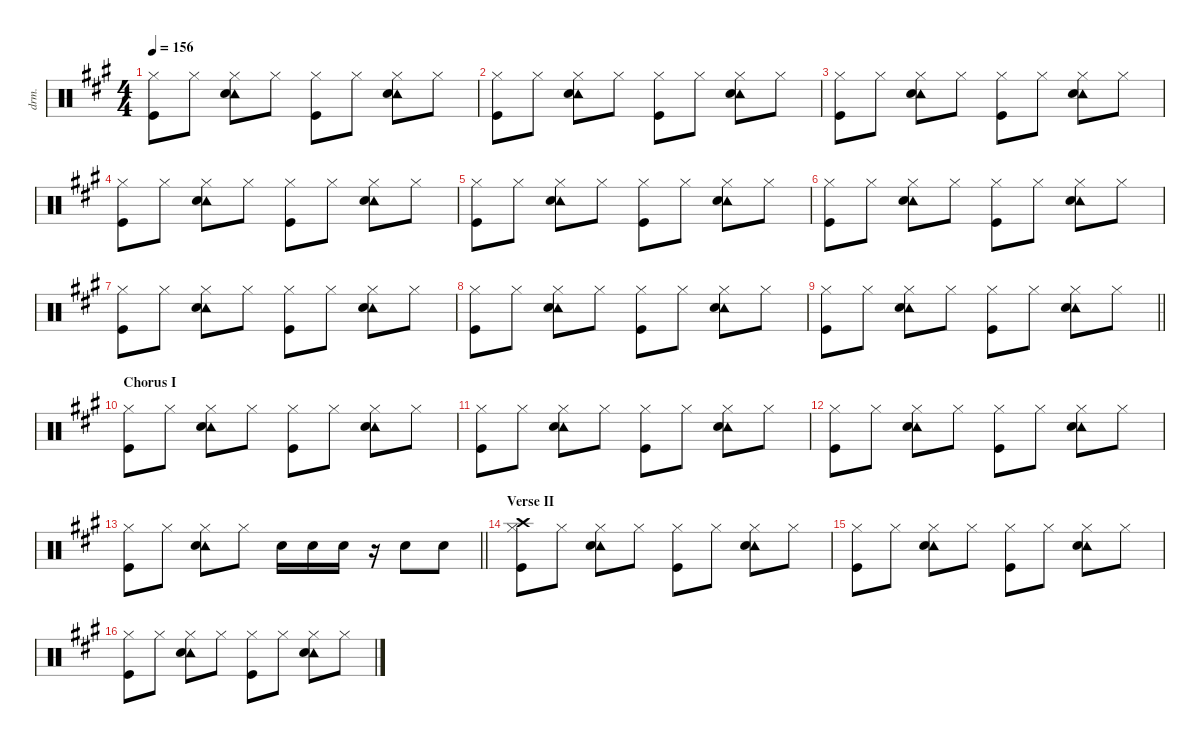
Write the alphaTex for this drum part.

\defaultSystemsLayout 4
\hideDynamics
\bracketExtendMode nobrackets
\otherSystemsTrackNameOrientation horizontal
\track ("Drums" "drm.") {instrument percussion}
\staff {score}
\articulation defaults
\ts (4 4)
\tempo 156
\clef neutral
\ks a
("Hi-Hat (closed)"{acc forcenatural} "Kick (hit)"{acc forcenatural}).8{dy f beam Down} "Hi-Hat (closed)"{acc forcenatural}.8{beam Down} ("Hi-Hat (closed)"{acc forcenatural} "Tambourine (hit)"{acc forcenatural} "Snare (hit) 2"{acc forcenatural}).8{beam Down} "Hi-Hat (closed)"{acc forcenatural}.8{beam Down} ("Hi-Hat (closed)"{acc forcenatural} "Kick (hit)"{acc forcenatural}).8{beam Down} "Hi-Hat (closed)"{acc forcenatural}.8{beam Down} ("Hi-Hat (closed)"{acc forcenatural} "Tambourine (hit)"{acc forcenatural} "Snare (hit) 2"{acc forcenatural}).8{beam Down} "Hi-Hat (closed)"{acc forcenatural}.8{beam Down} |
("Hi-Hat (closed)"{acc forcenatural} "Kick (hit)"{acc forcenatural}).8{beam Down} "Hi-Hat (closed)"{acc forcenatural}.8{beam Down} ("Hi-Hat (closed)"{acc forcenatural} "Tambourine (hit)"{acc forcenatural} "Snare (hit) 2"{acc forcenatural}).8{beam Down} "Hi-Hat (closed)"{acc forcenatural}.8{beam Down} ("Hi-Hat (closed)"{acc forcenatural} "Kick (hit)"{acc forcenatural}).8{beam Down} "Hi-Hat (closed)"{acc forcenatural}.8{beam Down} ("Hi-Hat (closed)"{acc forcenatural} "Tambourine (hit)"{acc forcenatural} "Snare (hit) 2"{acc forcenatural}).8{beam Down} "Hi-Hat (closed)"{acc forcenatural}.8{beam Down} |
("Hi-Hat (closed)"{acc forcenatural} "Kick (hit)"{acc forcenatural}).8{beam Down} "Hi-Hat (closed)"{acc forcenatural}.8{beam Down} ("Hi-Hat (closed)"{acc forcenatural} "Tambourine (hit)"{acc forcenatural} "Snare (hit) 2"{acc forcenatural}).8{beam Down} "Hi-Hat (closed)"{acc forcenatural}.8{beam Down} ("Hi-Hat (closed)"{acc forcenatural} "Kick (hit)"{acc forcenatural}).8{beam Down} "Hi-Hat (closed)"{acc forcenatural}.8{beam Down} ("Hi-Hat (closed)"{acc forcenatural} "Tambourine (hit)"{acc forcenatural} "Snare (hit) 2"{acc forcenatural}).8{beam Down} "Hi-Hat (closed)"{acc forcenatural}.8{beam Down} |
("Hi-Hat (closed)"{acc forcenatural} "Kick (hit)"{acc forcenatural}).8{beam Down} "Hi-Hat (closed)"{acc forcenatural}.8{beam Down} ("Hi-Hat (closed)"{acc forcenatural} "Tambourine (hit)"{acc forcenatural} "Snare (hit) 2"{acc forcenatural}).8{beam Down} "Hi-Hat (closed)"{acc forcenatural}.8{beam Down} ("Hi-Hat (closed)"{acc forcenatural} "Kick (hit)"{acc forcenatural}).8{beam Down} "Hi-Hat (closed)"{acc forcenatural}.8{beam Down} ("Hi-Hat (closed)"{acc forcenatural} "Tambourine (hit)"{acc forcenatural} "Snare (hit) 2"{acc forcenatural}).8{beam Down} "Hi-Hat (closed)"{acc forcenatural}.8{beam Down} |
("Hi-Hat (closed)"{acc forcenatural} "Kick (hit)"{acc forcenatural}).8{beam Down} "Hi-Hat (closed)"{acc forcenatural}.8{beam Down} ("Hi-Hat (closed)"{acc forcenatural} "Tambourine (hit)"{acc forcenatural} "Snare (hit) 2"{acc forcenatural}).8{beam Down} "Hi-Hat (closed)"{acc forcenatural}.8{beam Down} ("Hi-Hat (closed)"{acc forcenatural} "Kick (hit)"{acc forcenatural}).8{beam Down} "Hi-Hat (closed)"{acc forcenatural}.8{beam Down} ("Hi-Hat (closed)"{acc forcenatural} "Tambourine (hit)"{acc forcenatural} "Snare (hit) 2"{acc forcenatural}).8{beam Down} "Hi-Hat (closed)"{acc forcenatural}.8{beam Down} |
("Hi-Hat (closed)"{acc forcenatural} "Kick (hit)"{acc forcenatural}).8{beam Down} "Hi-Hat (closed)"{acc forcenatural}.8{beam Down} ("Hi-Hat (closed)"{acc forcenatural} "Tambourine (hit)"{acc forcenatural} "Snare (hit) 2"{acc forcenatural}).8{beam Down} "Hi-Hat (closed)"{acc forcenatural}.8{beam Down} ("Hi-Hat (closed)"{acc forcenatural} "Kick (hit)"{acc forcenatural}).8{beam Down} "Hi-Hat (closed)"{acc forcenatural}.8{beam Down} ("Hi-Hat (closed)"{acc forcenatural} "Tambourine (hit)"{acc forcenatural} "Snare (hit) 2"{acc forcenatural}).8{beam Down} "Hi-Hat (closed)"{acc forcenatural}.8{beam Down} |
("Hi-Hat (closed)"{acc forcenatural} "Kick (hit)"{acc forcenatural}).8{beam Down} "Hi-Hat (closed)"{acc forcenatural}.8{beam Down} ("Hi-Hat (closed)"{acc forcenatural} "Tambourine (hit)"{acc forcenatural} "Snare (hit) 2"{acc forcenatural}).8{beam Down} "Hi-Hat (closed)"{acc forcenatural}.8{beam Down} ("Hi-Hat (closed)"{acc forcenatural} "Kick (hit)"{acc forcenatural}).8{beam Down} "Hi-Hat (closed)"{acc forcenatural}.8{beam Down} ("Hi-Hat (closed)"{acc forcenatural} "Tambourine (hit)"{acc forcenatural} "Snare (hit) 2"{acc forcenatural}).8{beam Down} "Hi-Hat (closed)"{acc forcenatural}.8{beam Down} |
("Hi-Hat (closed)"{acc forcenatural} "Kick (hit)"{acc forcenatural}).8{beam Down} "Hi-Hat (closed)"{acc forcenatural}.8{beam Down} ("Hi-Hat (closed)"{acc forcenatural} "Tambourine (hit)"{acc forcenatural} "Snare (hit) 2"{acc forcenatural}).8{beam Down} "Hi-Hat (closed)"{acc forcenatural}.8{beam Down} ("Hi-Hat (closed)"{acc forcenatural} "Kick (hit)"{acc forcenatural}).8{beam Down} "Hi-Hat (closed)"{acc forcenatural}.8{beam Down} ("Hi-Hat (closed)"{acc forcenatural} "Tambourine (hit)"{acc forcenatural} "Snare (hit) 2"{acc forcenatural}).8{beam Down} "Hi-Hat (closed)"{acc forcenatural}.8{beam Down} |
\barLineRight lightlight
("Hi-Hat (closed)"{acc forcenatural} "Kick (hit)"{acc forcenatural}).8{beam Down} "Hi-Hat (closed)"{acc forcenatural}.8{beam Down} ("Hi-Hat (closed)"{acc forcenatural} "Tambourine (hit)"{acc forcenatural} "Snare (hit) 2"{acc forcenatural}).8{beam Down} "Hi-Hat (closed)"{acc forcenatural}.8{beam Down} ("Hi-Hat (closed)"{acc forcenatural} "Kick (hit)"{acc forcenatural}).8{beam Down} "Hi-Hat (closed)"{acc forcenatural}.8{beam Down} ("Hi-Hat (closed)"{acc forcenatural} "Tambourine (hit)"{acc forcenatural} "Snare (hit) 2"{acc forcenatural}).8{beam Down} "Hi-Hat (closed)"{acc forcenatural}.8{beam Down} |
\section ("" "Chorus I")
("Hi-Hat (closed)"{acc forcenatural} "Kick (hit)"{acc forcenatural}).8{beam Down} "Hi-Hat (closed)"{acc forcenatural}.8{beam Down} ("Hi-Hat (closed)"{acc forcenatural} "Tambourine (hit)"{acc forcenatural} "Snare (hit) 2"{acc forcenatural}).8{beam Down} "Hi-Hat (closed)"{acc forcenatural}.8{beam Down} ("Hi-Hat (closed)"{acc forcenatural} "Kick (hit)"{acc forcenatural}).8{beam Down} "Hi-Hat (closed)"{acc forcenatural}.8{beam Down} ("Hi-Hat (closed)"{acc forcenatural} "Tambourine (hit)"{acc forcenatural} "Snare (hit) 2"{acc forcenatural}).8{beam Down} "Hi-Hat (closed)"{acc forcenatural}.8{beam Down} |
("Hi-Hat (closed)"{acc forcenatural} "Kick (hit)"{acc forcenatural}).8{beam Down} "Hi-Hat (closed)"{acc forcenatural}.8{beam Down} ("Hi-Hat (closed)"{acc forcenatural} "Tambourine (hit)"{acc forcenatural} "Snare (hit) 2"{acc forcenatural}).8{beam Down} "Hi-Hat (closed)"{acc forcenatural}.8{beam Down} ("Hi-Hat (closed)"{acc forcenatural} "Kick (hit)"{acc forcenatural}).8{beam Down} "Hi-Hat (closed)"{acc forcenatural}.8{beam Down} ("Hi-Hat (closed)"{acc forcenatural} "Tambourine (hit)"{acc forcenatural} "Snare (hit) 2"{acc forcenatural}).8{beam Down} "Hi-Hat (closed)"{acc forcenatural}.8{beam Down} |
("Hi-Hat (closed)"{acc forcenatural} "Kick (hit)"{acc forcenatural}).8{beam Down} "Hi-Hat (closed)"{acc forcenatural}.8{beam Down} ("Hi-Hat (closed)"{acc forcenatural} "Tambourine (hit)"{acc forcenatural} "Snare (hit) 2"{acc forcenatural}).8{beam Down} "Hi-Hat (closed)"{acc forcenatural}.8{beam Down} ("Hi-Hat (closed)"{acc forcenatural} "Kick (hit)"{acc forcenatural}).8{beam Down} "Hi-Hat (closed)"{acc forcenatural}.8{beam Down} ("Hi-Hat (closed)"{acc forcenatural} "Tambourine (hit)"{acc forcenatural} "Snare (hit) 2"{acc forcenatural}).8{beam Down} "Hi-Hat (closed)"{acc forcenatural}.8{beam Down} |
\barLineRight lightlight
("Hi-Hat (closed)"{acc forcenatural} "Kick (hit)"{acc forcenatural}).8{beam Down} "Hi-Hat (closed)"{acc forcenatural}.8{beam Down} ("Hi-Hat (closed)"{acc forcenatural} "Tambourine (hit)"{acc forcenatural} "Snare (hit) 2"{acc forcenatural}).8{beam Down} "Hi-Hat (closed)"{acc forcenatural}.8{beam Down} "Snare (hit) 2"{acc forcenatural}.16{beam Down} "Snare (hit) 2"{acc forcenatural}.16{beam Down} "Snare (hit) 2"{acc forcenatural}.16{beam Down} r.16{beam Down} "Snare (hit) 2"{acc forcenatural}.8{beam Down} "Snare (hit) 2"{acc forcenatural}.8{beam Down} |
\section ("" "Verse II")
("Hi-Hat (closed)"{acc forcenatural} "Crash high (hit)"{acc forcenatural} "Kick (hit)"{acc forcenatural}).8{beam Down} "Hi-Hat (closed)"{acc forcenatural}.8{beam Down} ("Hi-Hat (closed)"{acc forcenatural} "Tambourine (hit)"{acc forcenatural} "Snare (hit) 2"{acc forcenatural}).8{beam Down} "Hi-Hat (closed)"{acc forcenatural}.8{beam Down} ("Hi-Hat (closed)"{acc forcenatural} "Kick (hit)"{acc forcenatural}).8{beam Down} "Hi-Hat (closed)"{acc forcenatural}.8{beam Down} ("Hi-Hat (closed)"{acc forcenatural} "Tambourine (hit)"{acc forcenatural} "Snare (hit) 2"{acc forcenatural}).8{beam Down} "Hi-Hat (closed)"{acc forcenatural}.8{beam Down} |
("Hi-Hat (closed)"{acc forcenatural} "Kick (hit)"{acc forcenatural}).8{beam Down} "Hi-Hat (closed)"{acc forcenatural}.8{beam Down} ("Hi-Hat (closed)"{acc forcenatural} "Tambourine (hit)"{acc forcenatural} "Snare (hit) 2"{acc forcenatural}).8{beam Down} "Hi-Hat (closed)"{acc forcenatural}.8{beam Down} ("Hi-Hat (closed)"{acc forcenatural} "Kick (hit)"{acc forcenatural}).8{beam Down} "Hi-Hat (closed)"{acc forcenatural}.8{beam Down} ("Hi-Hat (closed)"{acc forcenatural} "Tambourine (hit)"{acc forcenatural} "Snare (hit) 2"{acc forcenatural}).8{beam Down} "Hi-Hat (closed)"{acc forcenatural}.8{beam Down} |
("Hi-Hat (closed)"{acc forcenatural} "Kick (hit)"{acc forcenatural}).8{beam Down} "Hi-Hat (closed)"{acc forcenatural}.8{beam Down} ("Hi-Hat (closed)"{acc forcenatural} "Tambourine (hit)"{acc forcenatural} "Snare (hit) 2"{acc forcenatural}).8{beam Down} "Hi-Hat (closed)"{acc forcenatural}.8{beam Down} ("Hi-Hat (closed)"{acc forcenatural} "Kick (hit)"{acc forcenatural}).8{beam Down} "Hi-Hat (closed)"{acc forcenatural}.8{beam Down} ("Hi-Hat (closed)"{acc forcenatural} "Tambourine (hit)"{acc forcenatural} "Snare (hit) 2"{acc forcenatural}).8{beam Down} "Hi-Hat (closed)"{acc forcenatural}.8{beam Down}
